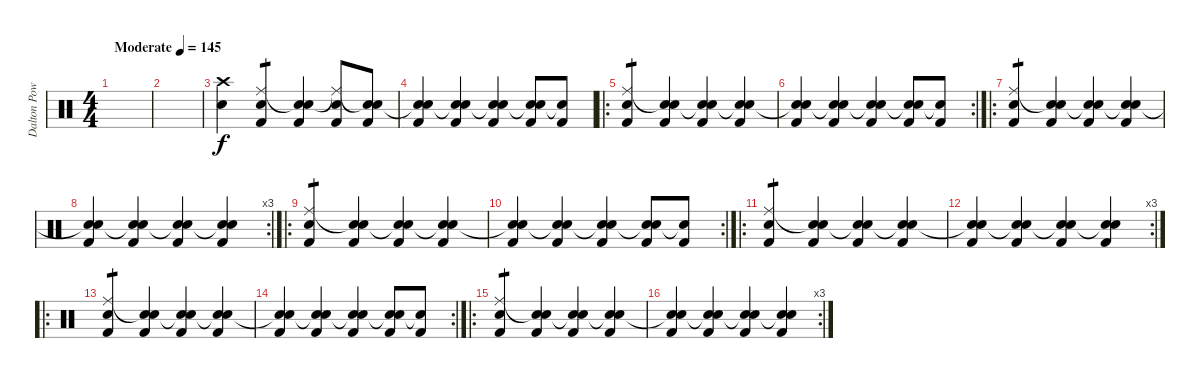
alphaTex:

\track ("Dalton Powell" "Dalton Pow") {instrument percussion}
\staff {score}
\articulation defaults
\ts (4 4)
\tempo (145 "Moderate")
\clef neutral
\ks c
|
|
("Crash high (hit)" "Snare (hit) 2").4 ("Ride (middle)" "Snare (hit) 2" "Kick (hit) 2").4{tp 1} ("Snare (hit)"{t} "Snare (hit) 2" "Kick (hit) 2").4 ("Ride (middle)"{t} "Snare (hit) 2" "Kick (hit) 2").8 ("Snare (hit)"{t} "Snare (hit) 2" "Kick (hit) 2").8 |
("Snare (hit)"{t} "Snare (hit) 2" "Kick (hit) 2").4 ("Snare (hit)"{t} "Snare (hit) 2" "Kick (hit) 2").4 ("Snare (hit)"{t} "Snare (hit) 2" "Kick (hit) 2").4 ("Snare (hit)"{t} "Snare (hit) 2" "Kick (hit) 2").8 ("Snare (hit)"{t} "Kick (hit) 2").8 |
\ro
("Ride (middle)" "Snare (hit) 2" "Kick (hit) 2").4{tp 1} ("Snare (hit)"{t} "Snare (hit) 2" "Kick (hit) 2").4 ("Snare (hit)"{t} "Snare (hit) 2" "Kick (hit) 2").4 ("Snare (hit)"{t} "Snare (hit) 2" "Kick (hit) 2").4 |
\rc 2
("Snare (hit)"{t} "Snare (hit) 2" "Kick (hit) 2").4 ("Snare (hit)"{t} "Snare (hit) 2" "Kick (hit) 2").4 ("Snare (hit)"{t} "Snare (hit) 2" "Kick (hit) 2").4 ("Snare (hit)"{t} "Snare (hit) 2" "Kick (hit) 2").8 ("Snare (hit)"{t} "Kick (hit) 2").8 |
\ro
("Ride (middle)" "Snare (hit) 2" "Kick (hit) 2").4{tp 1} ("Snare (hit)"{t} "Snare (hit) 2" "Kick (hit) 2").4 ("Snare (hit)"{t} "Snare (hit) 2" "Kick (hit) 2").4 ("Snare (hit)"{t} "Snare (hit) 2" "Kick (hit) 2").4 |
\rc 3
("Snare (hit)"{t} "Snare (hit) 2" "Kick (hit) 2").4 ("Snare (hit)"{t} "Snare (hit) 2" "Kick (hit) 2").4 ("Snare (hit)"{t} "Snare (hit) 2" "Kick (hit) 2").4 ("Snare (hit)"{t} "Snare (hit) 2" "Kick (hit) 2").4 |
\ro
("Ride (middle)" "Snare (hit) 2" "Kick (hit) 2").4{tp 1} ("Snare (hit)"{t} "Snare (hit) 2" "Kick (hit) 2").4 ("Snare (hit)"{t} "Snare (hit) 2" "Kick (hit) 2").4 ("Snare (hit)"{t} "Snare (hit) 2" "Kick (hit) 2").4 |
\rc 2
("Snare (hit)"{t} "Snare (hit) 2" "Kick (hit) 2").4 ("Snare (hit)"{t} "Snare (hit) 2" "Kick (hit) 2").4 ("Snare (hit)"{t} "Snare (hit) 2" "Kick (hit) 2").4 ("Snare (hit)"{t} "Snare (hit) 2" "Kick (hit) 2").8 ("Snare (hit)"{t} "Kick (hit) 2").8 |
\ro
("Ride (middle)" "Snare (hit) 2" "Kick (hit) 2").4{tp 1} ("Snare (hit)"{t} "Snare (hit) 2" "Kick (hit) 2").4 ("Snare (hit)"{t} "Snare (hit) 2" "Kick (hit) 2").4 ("Snare (hit)"{t} "Snare (hit) 2" "Kick (hit) 2").4 |
\rc 3
("Snare (hit)"{t} "Snare (hit) 2" "Kick (hit) 2").4 ("Snare (hit)"{t} "Snare (hit) 2" "Kick (hit) 2").4 ("Snare (hit)"{t} "Snare (hit) 2" "Kick (hit) 2").4 ("Snare (hit)"{t} "Snare (hit) 2" "Kick (hit) 2").4 |
\ro
("Ride (middle)" "Snare (hit) 2" "Kick (hit) 2").4{tp 1} ("Snare (hit)"{t} "Snare (hit) 2" "Kick (hit) 2").4 ("Snare (hit)"{t} "Snare (hit) 2" "Kick (hit) 2").4 ("Snare (hit)"{t} "Snare (hit) 2" "Kick (hit) 2").4 |
\rc 2
("Snare (hit)"{t} "Snare (hit) 2" "Kick (hit) 2").4 ("Snare (hit)"{t} "Snare (hit) 2" "Kick (hit) 2").4 ("Snare (hit)"{t} "Snare (hit) 2" "Kick (hit) 2").4 ("Snare (hit)"{t} "Snare (hit) 2" "Kick (hit) 2").8 ("Snare (hit)"{t} "Kick (hit) 2").8 |
\ro
("Ride (middle)" "Snare (hit) 2" "Kick (hit) 2").4{tp 1} ("Snare (hit)"{t} "Snare (hit) 2" "Kick (hit) 2").4 ("Snare (hit)"{t} "Snare (hit) 2" "Kick (hit) 2").4 ("Snare (hit)"{t} "Snare (hit) 2" "Kick (hit) 2").4 |
\rc 3
("Snare (hit)"{t} "Snare (hit) 2" "Kick (hit) 2").4 ("Snare (hit)"{t} "Snare (hit) 2" "Kick (hit) 2").4 ("Snare (hit)"{t} "Snare (hit) 2" "Kick (hit) 2").4 ("Snare (hit)"{t} "Snare (hit) 2" "Kick (hit) 2").4
